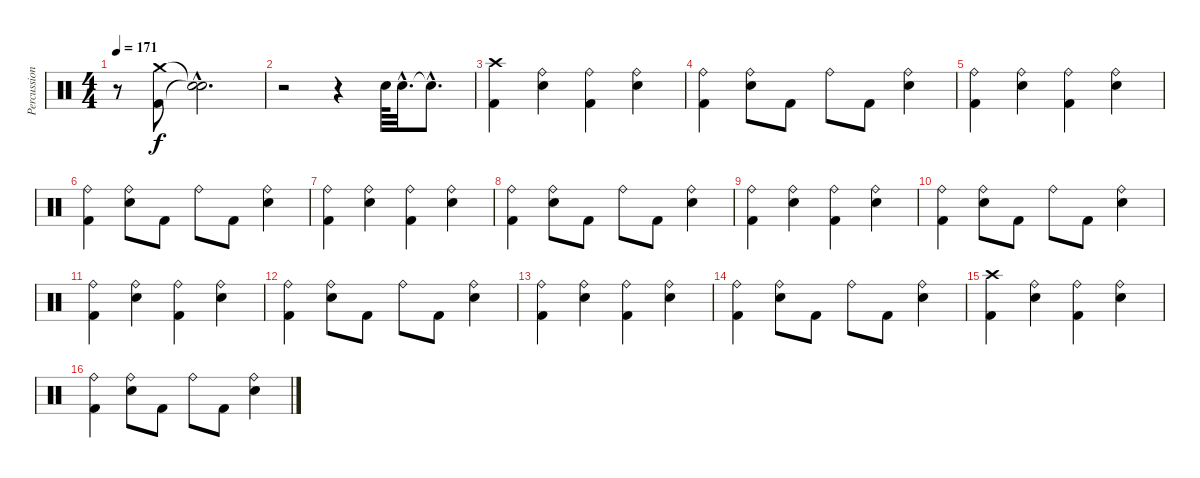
\track ("Percussion" "Percussion") {instrument percussion}
\staff {score}
\articulation defaults
\ts (4 4)
\tempo 171
\clef neutral
\ks c
r.8{dy f} ("Crash medium (hit)" "Kick (hit) 2").8 ("Snare (hit)"{hac t} "Snare (hit)"{hac t}).2{d} |
r.2 r.4 "Metronome (bell)".64 "Metronome (bell)"{hac}.32{d} "Snare (hit)"{hac t}.8{d} |
("Crash high (hit)" "Kick (hit) 2").4 ("Ride (bell)" "Metronome (bell)").4 ("Ride (bell)" "Kick (hit) 2").4 ("Ride (bell)" "Metronome (bell)").4 |
("Ride (bell)" "Kick (hit) 2").4 ("Ride (bell)" "Metronome (bell)").8 "Kick (hit) 2".8 "Ride (bell)".8 "Kick (hit) 2".8 ("Ride (bell)" "Metronome (bell)").4 |
("Ride (bell)" "Kick (hit) 2").4 ("Ride (bell)" "Metronome (bell)").4 ("Ride (bell)" "Kick (hit) 2").4 ("Ride (bell)" "Metronome (bell)").4 |
("Ride (bell)" "Kick (hit) 2").4 ("Ride (bell)" "Metronome (bell)").8 "Kick (hit) 2".8 "Ride (bell)".8 "Kick (hit) 2".8 ("Ride (bell)" "Metronome (bell)").4 |
("Ride (bell)" "Kick (hit) 2").4 ("Ride (bell)" "Metronome (bell)").4 ("Ride (bell)" "Kick (hit) 2").4 ("Ride (bell)" "Metronome (bell)").4 |
("Ride (bell)" "Kick (hit) 2").4 ("Ride (bell)" "Metronome (bell)").8 "Kick (hit) 2".8 "Ride (bell)".8 "Kick (hit) 2".8 ("Ride (bell)" "Metronome (bell)").4 |
("Ride (bell)" "Kick (hit) 2").4 ("Ride (bell)" "Metronome (bell)").4 ("Ride (bell)" "Kick (hit) 2").4 ("Ride (bell)" "Metronome (bell)").4 |
("Ride (bell)" "Kick (hit) 2").4 ("Ride (bell)" "Metronome (bell)").8 "Kick (hit) 2".8 "Ride (bell)".8 "Kick (hit) 2".8 ("Ride (bell)" "Metronome (bell)").4 |
("Ride (bell)" "Kick (hit) 2").4 ("Ride (bell)" "Metronome (bell)").4 ("Ride (bell)" "Kick (hit) 2").4 ("Ride (bell)" "Metronome (bell)").4 |
("Ride (bell)" "Kick (hit) 2").4 ("Ride (bell)" "Metronome (bell)").8 "Kick (hit) 2".8 "Ride (bell)".8 "Kick (hit) 2".8 ("Ride (bell)" "Metronome (bell)").4 |
("Ride (bell)" "Kick (hit) 2").4 ("Ride (bell)" "Metronome (bell)").4 ("Ride (bell)" "Kick (hit) 2").4 ("Ride (bell)" "Metronome (bell)").4 |
("Ride (bell)" "Kick (hit) 2").4 ("Ride (bell)" "Metronome (bell)").8 "Kick (hit) 2".8 "Ride (bell)".8 "Kick (hit) 2".8 ("Ride (bell)" "Metronome (bell)").4 |
("Crash high (hit)" "Kick (hit) 2").4 ("Ride (bell)" "Metronome (bell)").4 ("Ride (bell)" "Kick (hit) 2").4 ("Ride (bell)" "Metronome (bell)").4 |
("Ride (bell)" "Kick (hit) 2").4 ("Ride (bell)" "Metronome (bell)").8 "Kick (hit) 2".8 "Ride (bell)".8 "Kick (hit) 2".8 ("Ride (bell)" "Metronome (bell)").4
